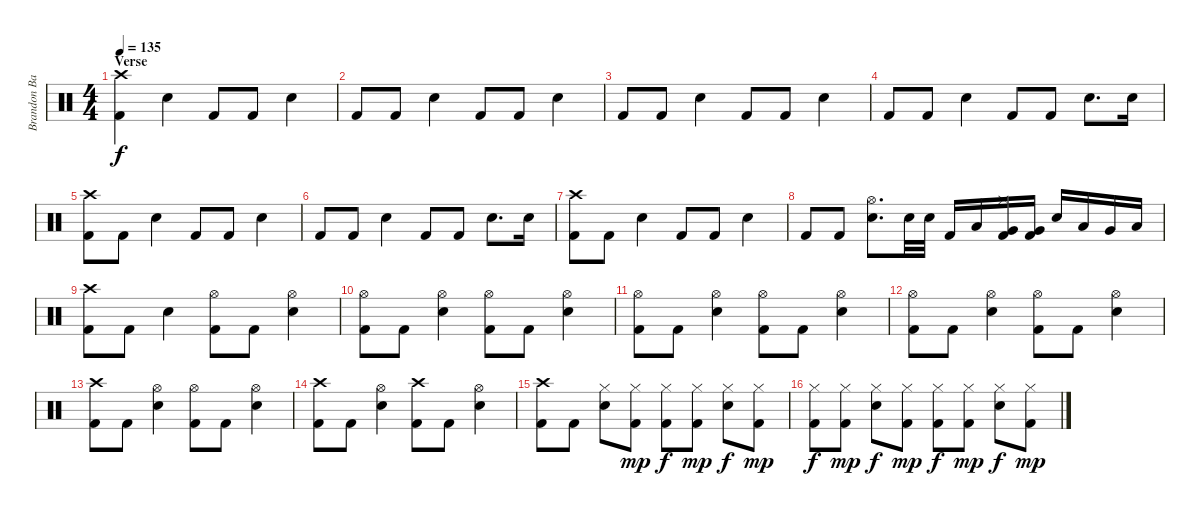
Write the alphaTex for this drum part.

\track ("Brandon Barnes - Drums" "Brandon Ba") {instrument percussion}
\staff {score}
\articulation defaults
\ts (4 4)
\section ("" "Verse")
\tempo 135
\clef neutral
\ks c
("Crash high (hit)" "Kick (hit) 2").4{dy f} "Snare (hit) 2".4 "Kick (hit) 2".8 "Kick (hit) 2".8 "Snare (hit) 2".4 |
"Kick (hit) 2".8 "Kick (hit) 2".8 "Snare (hit) 2".4 "Kick (hit) 2".8 "Kick (hit) 2".8 "Snare (hit) 2".4 |
"Kick (hit) 2".8 "Kick (hit) 2".8 "Snare (hit) 2".4 "Kick (hit) 2".8 "Kick (hit) 2".8 "Snare (hit) 2".4 |
"Kick (hit) 2".8 "Kick (hit) 2".8 "Snare (hit) 2".4 "Kick (hit) 2".8 "Kick (hit) 2".8 "Snare (hit) 2".8{d} "Snare (hit) 2".16 |
("Crash high (hit)" "Kick (hit) 2").8 "Kick (hit) 2".8 "Snare (hit) 2".4 "Kick (hit) 2".8 "Kick (hit) 2".8 "Snare (hit) 2".4 |
"Kick (hit) 2".8 "Kick (hit) 2".8 "Snare (hit) 2".4 "Kick (hit) 2".8 "Kick (hit) 2".8 "Snare (hit) 2".8{d} "Snare (hit) 2".16 |
("Crash high (hit)" "Kick (hit) 2").8 "Kick (hit) 2".8 "Snare (hit) 2".4 "Kick (hit) 2".8 "Kick (hit) 2".8 "Snare (hit) 2".4 |
"Kick (hit) 2".8 "Kick (hit) 2".8 ("Hi-Hat (open)" "Snare (hit) 2").8{d} "Snare (hit) 2".32 "Snare (hit) 2".32 "Kick (hit) 2".16 "Low Tom (hit)".16 ("Hi-Hat (closed)" "Very Low Tom (hit)" "Kick (hit) 2").16 ("Kick (hit) 2" "Very Low Tom (hit)").16 "Snare (hit) 2".16 "Low Tom (hit)".16 "Very Low Tom (hit)".16 "Low Floor Tom (hit)".16 |
("Kick (hit) 2" "Crash high (hit)").8 "Kick (hit) 2".8 "Snare (hit) 2".4 ("Kick (hit) 2" "Hi-Hat (open)").8 "Kick (hit) 2".8 ("Snare (hit) 2" "Hi-Hat (open)").4 |
("Kick (hit) 2" "Hi-Hat (open)").8 "Kick (hit) 2".8 ("Snare (hit) 2" "Hi-Hat (open)").4 ("Kick (hit) 2" "Hi-Hat (open)").8 "Kick (hit) 2".8 ("Snare (hit) 2" "Hi-Hat (open)").4 |
("Kick (hit) 2" "Hi-Hat (open)").8 "Kick (hit) 2".8 ("Snare (hit) 2" "Hi-Hat (open)").4 ("Kick (hit) 2" "Hi-Hat (open)").8 "Kick (hit) 2".8 ("Snare (hit) 2" "Hi-Hat (open)").4 |
("Kick (hit) 2" "Hi-Hat (open)").8 "Kick (hit) 2".8 ("Snare (hit) 2" "Hi-Hat (open)").4 ("Kick (hit) 2" "Hi-Hat (open)").8 "Kick (hit) 2".8 ("Snare (hit) 2" "Hi-Hat (open)").4 |
("Kick (hit) 2" "Crash high (hit)").8 "Kick (hit) 2".8 ("Snare (hit) 2" "Hi-Hat (open)").4 ("Kick (hit) 2" "Hi-Hat (open)").8 "Kick (hit) 2".8 ("Snare (hit) 2" "Hi-Hat (open)").4 |
("Kick (hit) 2" "Crash high (hit)").8 "Kick (hit) 2".8 ("Snare (hit) 2" "Hi-Hat (open)").4 ("Kick (hit) 2" "Crash high (hit)").8 "Kick (hit) 2".8 ("Snare (hit) 2" "Hi-Hat (open)").4 |
("Crash high (hit)" "Kick (hit) 2").8 "Kick (hit) 2".8 ("Snare (hit) 2" "Hi-Hat (closed)").8 ("Hi-Hat (closed)" "Kick (hit) 2").8{dy mp} ("Kick (hit) 2" "Hi-Hat (closed)").8{dy f} ("Kick (hit) 2" "Hi-Hat (closed)").8{dy mp} ("Snare (hit) 2" "Hi-Hat (closed)").8{dy f} ("Hi-Hat (closed)" "Kick (hit) 2").8{dy mp} |
("Kick (hit) 2" "Hi-Hat (closed)").8{dy f} ("Kick (hit) 2" "Hi-Hat (closed)").8{dy mp} ("Snare (hit) 2" "Hi-Hat (closed)").8{dy f} ("Hi-Hat (closed)" "Kick (hit) 2").8{dy mp} ("Kick (hit) 2" "Hi-Hat (closed)").8{dy f} ("Kick (hit) 2" "Hi-Hat (closed)").8{dy mp} ("Snare (hit) 2" "Hi-Hat (closed)").8{dy f} ("Hi-Hat (closed)" "Kick (hit) 2").8{dy mp}
